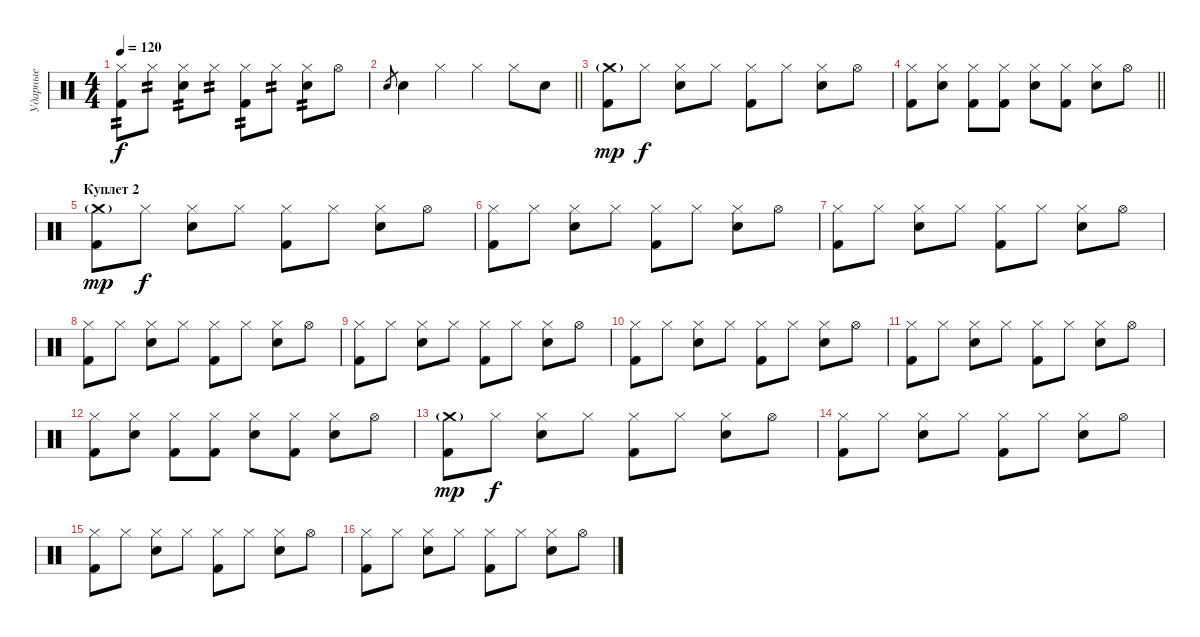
\track ("Ударные" "Ударные") {instrument percussion}
\staff {score}
\articulation defaults
\ts (4 4)
\tempo 120
\clef neutral
\ks c
("Hi-Hat (closed)" "Kick (hit) 2").8{tp 2 dy f} "Hi-Hat (closed)".8{tp 2} ("Hi-Hat (closed)" "Snare (hit) 2").8{tp 2} "Hi-Hat (closed)".8{tp 2} ("Hi-Hat (closed)" "Kick (hit) 2").8{tp 2} "Hi-Hat (closed)".8{tp 2} ("Hi-Hat (closed)" "Snare (hit) 2").8{tp 2} "Hi-Hat (open)".8 |
\barLineRight lightlight "Snare (hit) 2".8{gr} "Snare (hit) 2".4 "Hi-Hat (closed)".4 "Hi-Hat (closed)".4 "Hi-Hat (closed)".8 "Snare (hit) 2".8
|
\section ("" "")
("Crash medium (hit)"{g} "Kick (hit) 2").8{dy mp} "Hi-Hat (closed)".8{dy f} ("Hi-Hat (closed)" "Snare (hit) 2").8 "Hi-Hat (closed)".8 ("Hi-Hat (closed)" "Kick (hit) 2").8 "Hi-Hat (closed)".8 ("Hi-Hat (closed)" "Snare (hit) 2").8 "Hi-Hat (open)".8 |
\barLineRight lightlight
("Hi-Hat (closed)" "Kick (hit) 2").8 ("Hi-Hat (closed)" "Snare (hit) 2").8 ("Hi-Hat (closed)" "Kick (hit) 2").8 ("Hi-Hat (closed)" "Kick (hit) 2").8 ("Hi-Hat (closed)" "Snare (hit) 2").8 ("Hi-Hat (closed)" "Kick (hit) 2").8 ("Hi-Hat (closed)" "Snare (hit) 2").8 "Hi-Hat (open)".8 |
\section ("" "Куплет 2")
("Crash medium (hit)"{g} "Kick (hit) 2").8{dy mp} "Hi-Hat (closed)".8{dy f} ("Hi-Hat (closed)" "Snare (hit) 2").8 "Hi-Hat (closed)".8 ("Hi-Hat (closed)" "Kick (hit) 2").8 "Hi-Hat (closed)".8 ("Hi-Hat (closed)" "Snare (hit) 2").8 "Hi-Hat (open)".8 |
("Hi-Hat (closed)" "Kick (hit) 2").8 "Hi-Hat (closed)".8 ("Hi-Hat (closed)" "Snare (hit) 2").8 "Hi-Hat (closed)".8 ("Hi-Hat (closed)" "Kick (hit) 2").8 "Hi-Hat (closed)".8 ("Hi-Hat (closed)" "Snare (hit) 2").8 "Hi-Hat (open)".8 |
("Hi-Hat (closed)" "Kick (hit) 2").8 "Hi-Hat (closed)".8 ("Hi-Hat (closed)" "Snare (hit) 2").8 "Hi-Hat (closed)".8 ("Hi-Hat (closed)" "Kick (hit) 2").8 "Hi-Hat (closed)".8 ("Hi-Hat (closed)" "Snare (hit) 2").8 "Hi-Hat (open)".8 |
("Hi-Hat (closed)" "Kick (hit) 2").8 "Hi-Hat (closed)".8 ("Hi-Hat (closed)" "Snare (hit) 2").8 "Hi-Hat (closed)".8 ("Hi-Hat (closed)" "Kick (hit) 2").8 "Hi-Hat (closed)".8 ("Hi-Hat (closed)" "Snare (hit) 2").8 "Hi-Hat (open)".8 |
("Hi-Hat (closed)" "Kick (hit) 2").8 "Hi-Hat (closed)".8 ("Hi-Hat (closed)" "Snare (hit) 2").8 "Hi-Hat (closed)".8 ("Hi-Hat (closed)" "Kick (hit) 2").8 "Hi-Hat (closed)".8 ("Hi-Hat (closed)" "Snare (hit) 2").8 "Hi-Hat (open)".8 |
("Hi-Hat (closed)" "Kick (hit) 2").8 "Hi-Hat (closed)".8 ("Hi-Hat (closed)" "Snare (hit) 2").8 "Hi-Hat (closed)".8 ("Hi-Hat (closed)" "Kick (hit) 2").8 "Hi-Hat (closed)".8 ("Hi-Hat (closed)" "Snare (hit) 2").8 "Hi-Hat (open)".8 |
("Hi-Hat (closed)" "Kick (hit) 2").8 "Hi-Hat (closed)".8 ("Hi-Hat (closed)" "Snare (hit) 2").8 "Hi-Hat (closed)".8 ("Hi-Hat (closed)" "Kick (hit) 2").8 "Hi-Hat (closed)".8 ("Hi-Hat (closed)" "Snare (hit) 2").8 "Hi-Hat (open)".8 |
("Hi-Hat (closed)" "Kick (hit) 2").8 ("Hi-Hat (closed)" "Snare (hit) 2").8 ("Hi-Hat (closed)" "Kick (hit) 2").8 ("Hi-Hat (closed)" "Kick (hit) 2").8 ("Hi-Hat (closed)" "Snare (hit) 2").8 ("Hi-Hat (closed)" "Kick (hit) 2").8 ("Hi-Hat (closed)" "Snare (hit) 2").8 "Hi-Hat (open)".8 |
("Crash medium (hit)"{g} "Kick (hit) 2").8{dy mp} "Hi-Hat (closed)".8{dy f} ("Hi-Hat (closed)" "Snare (hit) 2").8 "Hi-Hat (closed)".8 ("Hi-Hat (closed)" "Kick (hit) 2").8 "Hi-Hat (closed)".8 ("Hi-Hat (closed)" "Snare (hit) 2").8 "Hi-Hat (open)".8 |
("Hi-Hat (closed)" "Kick (hit) 2").8 "Hi-Hat (closed)".8 ("Hi-Hat (closed)" "Snare (hit) 2").8 "Hi-Hat (closed)".8 ("Hi-Hat (closed)" "Kick (hit) 2").8 "Hi-Hat (closed)".8 ("Hi-Hat (closed)" "Snare (hit) 2").8 "Hi-Hat (open)".8 |
("Hi-Hat (closed)" "Kick (hit) 2").8 "Hi-Hat (closed)".8 ("Hi-Hat (closed)" "Snare (hit) 2").8 "Hi-Hat (closed)".8 ("Hi-Hat (closed)" "Kick (hit) 2").8 "Hi-Hat (closed)".8 ("Hi-Hat (closed)" "Snare (hit) 2").8 "Hi-Hat (open)".8 |
("Hi-Hat (closed)" "Kick (hit) 2").8 "Hi-Hat (closed)".8 ("Hi-Hat (closed)" "Snare (hit) 2").8 "Hi-Hat (closed)".8 ("Hi-Hat (closed)" "Kick (hit) 2").8 "Hi-Hat (closed)".8 ("Hi-Hat (closed)" "Snare (hit) 2").8 "Hi-Hat (open)".8
